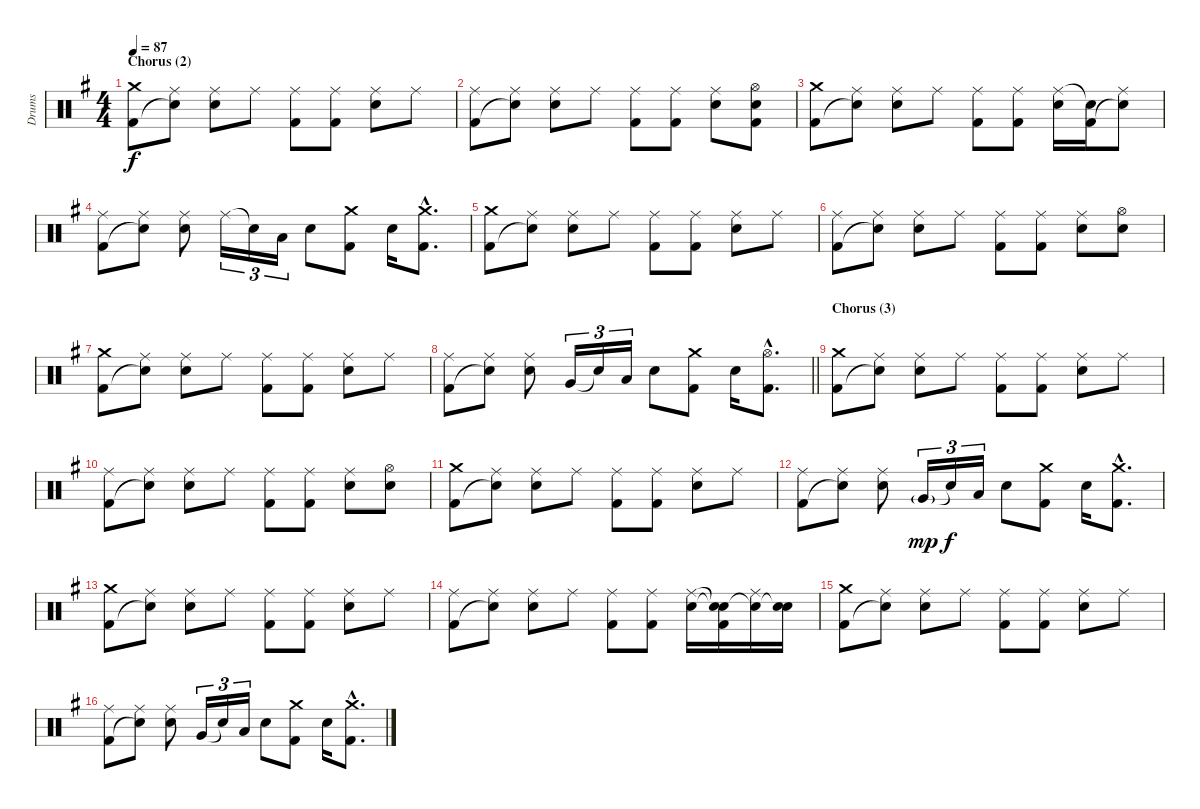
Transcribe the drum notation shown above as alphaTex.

\track ("Drums" "Drums") {instrument percussion}
\staff {score}
\articulation defaults
\ts (4 4)
\section ("" "Chorus (2)")
\tempo 87
\clef neutral
\ks g
("Crash medium (hit)" "Kick (hit) 2").8{dy f} ("Ride (middle)" "Snare (hit)"{t}).8 ("Ride (middle)" "Electric Snare (hit)").8 "Ride (middle)".8 ("Ride (middle)" "Kick (hit) 2").8 ("Ride (middle)" "Kick (hit) 2").8 ("Ride (middle)" "Electric Snare (hit)").8 "Ride (middle)".8 |
("Ride (middle)" "Kick (hit) 2").8 ("Ride (middle)" "Snare (hit)"{t}).8 ("Ride (middle)" "Electric Snare (hit)").8 "Ride (middle)".8 ("Ride (middle)" "Kick (hit) 2").8 ("Ride (middle)" "Kick (hit) 2").8 ("Ride (middle)" "Electric Snare (hit)").8 ("Hi-Hat (open)" "Electric Snare (hit)" "Kick (hit) 2").8 |
("Crash medium (hit)" "Kick (hit) 2").8 ("Ride (middle)" "Snare (hit)"{t}).8 ("Ride (middle)" "Electric Snare (hit)").8 "Ride (middle)".8 ("Ride (middle)" "Kick (hit) 2").8 ("Ride (middle)" "Kick (hit) 2").8 ("Ride (middle)" "Electric Snare (hit)").16 ("Snare (hit)"{t} "Kick (hit) 2").16 ("Ride (middle)" "Snare (hit)"{t}).8 |
("Ride (middle)" "Kick (hit) 2").8 ("Ride (middle)" "Snare (hit)"{t}).8 ("Ride (middle)" "Electric Snare (hit)").8 "Ride (middle)".16{tu (3 2)} "Snare (hit)"{t}.16{tu (3 2)} "Low Tom (hit)".16{tu (3 2)} "Electric Snare (hit)".8 ("Crash medium (hit)" "Kick (hit) 2").8 "Electric Snare (hit)".16 ("Crash medium (hit)"{hac} "Kick (hit) 2"{hac}).8{d} |
("Crash medium (hit)" "Kick (hit) 2").8 ("Ride (middle)" "Snare (hit)"{t}).8 ("Ride (middle)" "Electric Snare (hit)").8 "Ride (middle)".8 ("Ride (middle)" "Kick (hit) 2").8 ("Ride (middle)" "Kick (hit) 2").8 ("Ride (middle)" "Electric Snare (hit)").8 "Ride (middle)".8 |
("Ride (middle)" "Kick (hit) 2").8 ("Ride (middle)" "Snare (hit)"{t}).8 ("Ride (middle)" "Electric Snare (hit)").8 "Ride (middle)".8 ("Ride (middle)" "Kick (hit) 2").8 ("Ride (middle)" "Kick (hit) 2").8 ("Ride (middle)" "Electric Snare (hit)").8 ("Hi-Hat (open)" "Electric Snare (hit)").8 |
("Crash medium (hit)" "Kick (hit) 2").8 ("Ride (middle)" "Snare (hit)"{t}).8 ("Ride (middle)" "Electric Snare (hit)").8 "Ride (middle)".8 ("Ride (middle)" "Kick (hit) 2").8 ("Ride (middle)" "Kick (hit) 2").8 ("Ride (middle)" "Electric Snare (hit)").8 "Ride (middle)".8 |
\barLineRight lightlight
("Ride (middle)" "Kick (hit) 2").8 ("Ride (middle)" "Snare (hit)"{t}).8 ("Ride (middle)" "Electric Snare (hit)").8 "Very Low Tom (hit)".16{tu (3 2)} "Snare (hit)"{t}.16{tu (3 2)} "Low Tom (hit)".16{tu (3 2)} "Electric Snare (hit)".8 ("Crash medium (hit)" "Kick (hit) 2").8 "Electric Snare (hit)".16 ("Hi-Hat (open)"{hac} "Kick (hit) 2"{hac}).8{d} |
\section ("" "Chorus (3)")
("Crash medium (hit)" "Kick (hit) 2").8 ("Ride (middle)" "Snare (hit)"{t}).8 ("Ride (middle)" "Electric Snare (hit)").8 "Ride (middle)".8 ("Ride (middle)" "Kick (hit) 2").8 ("Ride (middle)" "Kick (hit) 2").8 ("Ride (middle)" "Electric Snare (hit)").8 "Ride (middle)".8 |
("Ride (middle)" "Kick (hit) 2").8 ("Ride (middle)" "Snare (hit)"{t}).8 ("Ride (middle)" "Electric Snare (hit)").8 "Ride (middle)".8 ("Ride (middle)" "Kick (hit) 2").8 ("Ride (middle)" "Kick (hit) 2").8 ("Ride (middle)" "Electric Snare (hit)").8 ("Hi-Hat (open)" "Electric Snare (hit)").8 |
("Crash medium (hit)" "Kick (hit) 2").8 ("Ride (middle)" "Snare (hit)"{t}).8 ("Ride (middle)" "Electric Snare (hit)").8 "Ride (middle)".8 ("Ride (middle)" "Kick (hit) 2").8 ("Ride (middle)" "Kick (hit) 2").8 ("Ride (middle)" "Electric Snare (hit)").8 "Ride (middle)".8 |
("Ride (middle)" "Kick (hit) 2").8 ("Ride (middle)" "Snare (hit)"{t}).8 ("Ride (middle)" "Electric Snare (hit)").8 "Very Low Tom (hit)"{g}.16{tu (3 2) dy mp} "Snare (hit)"{t}.16{tu (3 2) dy f} "Low Tom (hit)".16{tu (3 2)} "Electric Snare (hit)".8 ("Crash medium (hit)" "Kick (hit) 2").8 "Electric Snare (hit)".16 ("Crash medium (hit)"{hac} "Kick (hit) 2"{hac}).8{d} |
("Crash medium (hit)" "Kick (hit) 2").8 ("Ride (middle)" "Snare (hit)"{t}).8 ("Ride (middle)" "Electric Snare (hit)").8 "Ride (middle)".8 ("Ride (middle)" "Kick (hit) 2").8 ("Ride (middle)" "Kick (hit) 2").8 ("Ride (middle)" "Electric Snare (hit)").8 "Ride (middle)".8 |
("Ride (middle)" "Kick (hit) 2").8 ("Ride (middle)" "Snare (hit)"{t}).8 ("Ride (middle)" "Electric Snare (hit)").8 "Ride (middle)".8 ("Ride (middle)" "Kick (hit) 2").8 ("Ride (middle)" "Kick (hit) 2").8 ("Ride (middle)" "Electric Snare (hit)").16 ("Snare (hit)"{t} "Snare (hit)"{t} "Kick (hit) 2").16 ("Ride (middle)" "Snare (hit)"{t}).16 ("Electric Snare (hit)" "Snare (hit)"{t}).16 |
("Crash medium (hit)" "Kick (hit) 2").8 ("Ride (middle)" "Snare (hit)"{t}).8 ("Ride (middle)" "Electric Snare (hit)").8 "Ride (middle)".8 ("Ride (middle)" "Kick (hit) 2").8 ("Ride (middle)" "Kick (hit) 2").8 ("Ride (middle)" "Electric Snare (hit)").8 "Ride (middle)".8 |
("Ride (middle)" "Kick (hit) 2").8 ("Ride (middle)" "Snare (hit)"{t}).8 ("Ride (middle)" "Electric Snare (hit)").8 "Very Low Tom (hit)".16{tu (3 2)} "Snare (hit)"{t}.16{tu (3 2)} "Low Tom (hit)".16{tu (3 2)} "Electric Snare (hit)".8 ("Crash medium (hit)" "Kick (hit) 2").8 "Electric Snare (hit)".16 ("Crash medium (hit)"{hac} "Kick (hit) 2"{hac}).8{d}
